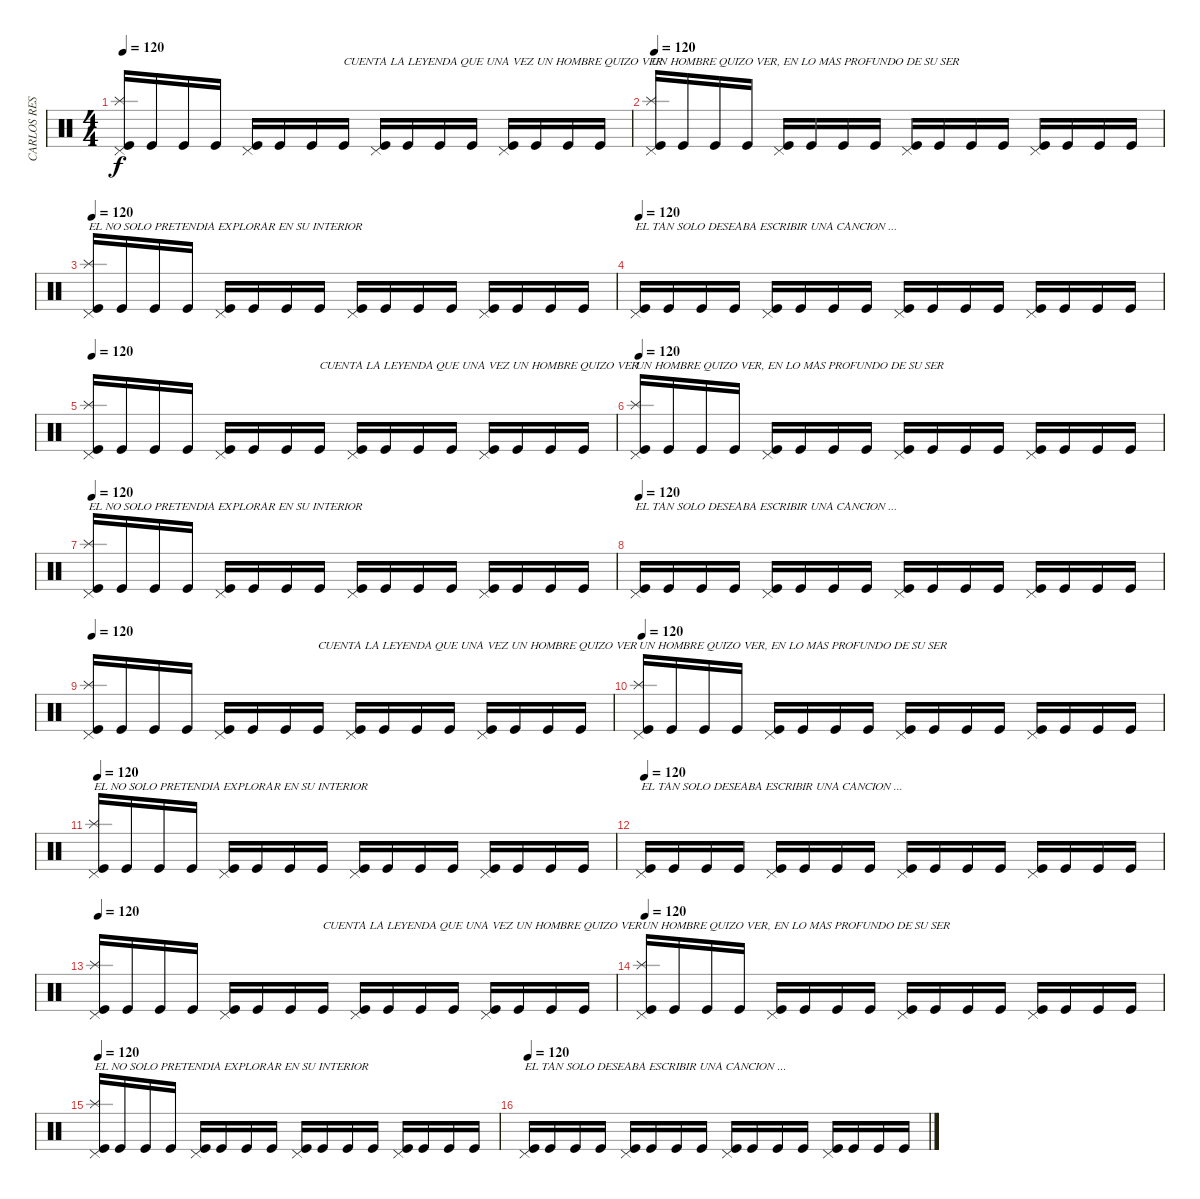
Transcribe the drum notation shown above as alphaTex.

\track ("CARLOS RESTREPO DARK  BATERIA" "CARLOS RES") {instrument percussion}
\staff {score}
\articulation defaults
\ts (4 4)
\tempo 120
\clef neutral
\ks c
("Kick (hit)" "Splash (hit)" "Pedal Hi-Hat (hit)").16{dy f} "Kick (hit)".16 "Kick (hit)".16 "Kick (hit)".16 ("Kick (hit)" "Pedal Hi-Hat (hit)").16 "Kick (hit)".16 "Kick (hit)".16 "Kick (hit)".16{txt "CUENTA LA LEYENDA QUE UNA VEZ UN HOMBRE QUIZO VER"} ("Kick (hit)" "Pedal Hi-Hat (hit)").16 "Kick (hit)".16 "Kick (hit)".16 "Kick (hit)".16 ("Kick (hit)" "Pedal Hi-Hat (hit)").16 "Kick (hit)".16 "Kick (hit)".16 "Kick (hit)".16 |
\tempo 120
("Kick (hit)" "Splash (hit)" "Pedal Hi-Hat (hit)").16{txt "UN HOMBRE QUIZO VER, EN LO MAS PROFUNDO DE SU SER"} "Kick (hit)".16 "Kick (hit)".16 "Kick (hit)".16 ("Kick (hit)" "Pedal Hi-Hat (hit)").16 "Kick (hit)".16 "Kick (hit)".16 "Kick (hit)".16 ("Kick (hit)" "Pedal Hi-Hat (hit)").16 "Kick (hit)".16 "Kick (hit)".16 "Kick (hit)".16 ("Kick (hit)" "Pedal Hi-Hat (hit)").16 "Kick (hit)".16 "Kick (hit)".16 "Kick (hit)".16 |
\tempo 120
("Kick (hit)" "Splash (hit)" "Pedal Hi-Hat (hit)").16{txt "EL NO SOLO PRETENDIA EXPLORAR EN SU INTERIOR"} "Kick (hit)".16 "Kick (hit)".16 "Kick (hit)".16 ("Kick (hit)" "Pedal Hi-Hat (hit)").16 "Kick (hit)".16 "Kick (hit)".16 "Kick (hit)".16 ("Kick (hit)" "Pedal Hi-Hat (hit)").16 "Kick (hit)".16 "Kick (hit)".16 "Kick (hit)".16 ("Kick (hit)" "Pedal Hi-Hat (hit)").16 "Kick (hit)".16 "Kick (hit)".16 "Kick (hit)".16 |
\tempo 120
("Kick (hit)" "Pedal Hi-Hat (hit)").16{txt "EL TAN SOLO DESEABA ESCRIBIR UNA CANCION ..."} "Kick (hit)".16 "Kick (hit)".16 "Kick (hit)".16 ("Kick (hit)" "Pedal Hi-Hat (hit)").16 "Kick (hit)".16 "Kick (hit)".16 "Kick (hit)".16 ("Kick (hit)" "Pedal Hi-Hat (hit)").16 "Kick (hit)".16 "Kick (hit)".16 "Kick (hit)".16 ("Kick (hit)" "Pedal Hi-Hat (hit)").16 "Kick (hit)".16 "Kick (hit)".16 "Kick (hit)".16 |
\tempo 120
("Kick (hit)" "Splash (hit)" "Pedal Hi-Hat (hit)").16 "Kick (hit)".16 "Kick (hit)".16 "Kick (hit)".16 ("Kick (hit)" "Pedal Hi-Hat (hit)").16 "Kick (hit)".16 "Kick (hit)".16 "Kick (hit)".16{txt "CUENTA LA LEYENDA QUE UNA VEZ UN HOMBRE QUIZO VER"} ("Kick (hit)" "Pedal Hi-Hat (hit)").16 "Kick (hit)".16 "Kick (hit)".16 "Kick (hit)".16 ("Kick (hit)" "Pedal Hi-Hat (hit)").16 "Kick (hit)".16 "Kick (hit)".16 "Kick (hit)".16 |
\tempo 120
("Kick (hit)" "Splash (hit)" "Pedal Hi-Hat (hit)").16{txt "UN HOMBRE QUIZO VER, EN LO MAS PROFUNDO DE SU SER"} "Kick (hit)".16 "Kick (hit)".16 "Kick (hit)".16 ("Kick (hit)" "Pedal Hi-Hat (hit)").16 "Kick (hit)".16 "Kick (hit)".16 "Kick (hit)".16 ("Kick (hit)" "Pedal Hi-Hat (hit)").16 "Kick (hit)".16 "Kick (hit)".16 "Kick (hit)".16 ("Kick (hit)" "Pedal Hi-Hat (hit)").16 "Kick (hit)".16 "Kick (hit)".16 "Kick (hit)".16 |
\tempo 120
("Kick (hit)" "Splash (hit)" "Pedal Hi-Hat (hit)").16{txt "EL NO SOLO PRETENDIA EXPLORAR EN SU INTERIOR"} "Kick (hit)".16 "Kick (hit)".16 "Kick (hit)".16 ("Kick (hit)" "Pedal Hi-Hat (hit)").16 "Kick (hit)".16 "Kick (hit)".16 "Kick (hit)".16 ("Kick (hit)" "Pedal Hi-Hat (hit)").16 "Kick (hit)".16 "Kick (hit)".16 "Kick (hit)".16 ("Kick (hit)" "Pedal Hi-Hat (hit)").16 "Kick (hit)".16 "Kick (hit)".16 "Kick (hit)".16 |
\tempo 120
("Kick (hit)" "Pedal Hi-Hat (hit)").16{txt "EL TAN SOLO DESEABA ESCRIBIR UNA CANCION ..."} "Kick (hit)".16 "Kick (hit)".16 "Kick (hit)".16 ("Kick (hit)" "Pedal Hi-Hat (hit)").16 "Kick (hit)".16 "Kick (hit)".16 "Kick (hit)".16 ("Kick (hit)" "Pedal Hi-Hat (hit)").16 "Kick (hit)".16 "Kick (hit)".16 "Kick (hit)".16 ("Kick (hit)" "Pedal Hi-Hat (hit)").16 "Kick (hit)".16 "Kick (hit)".16 "Kick (hit)".16 |
\tempo 120
("Kick (hit)" "Splash (hit)" "Pedal Hi-Hat (hit)").16 "Kick (hit)".16 "Kick (hit)".16 "Kick (hit)".16 ("Kick (hit)" "Pedal Hi-Hat (hit)").16 "Kick (hit)".16 "Kick (hit)".16 "Kick (hit)".16{txt "CUENTA LA LEYENDA QUE UNA VEZ UN HOMBRE QUIZO VER"} ("Kick (hit)" "Pedal Hi-Hat (hit)").16 "Kick (hit)".16 "Kick (hit)".16 "Kick (hit)".16 ("Kick (hit)" "Pedal Hi-Hat (hit)").16 "Kick (hit)".16 "Kick (hit)".16 "Kick (hit)".16 |
\tempo 120
("Kick (hit)" "Splash (hit)" "Pedal Hi-Hat (hit)").16{txt "UN HOMBRE QUIZO VER, EN LO MAS PROFUNDO DE SU SER"} "Kick (hit)".16 "Kick (hit)".16 "Kick (hit)".16 ("Kick (hit)" "Pedal Hi-Hat (hit)").16 "Kick (hit)".16 "Kick (hit)".16 "Kick (hit)".16 ("Kick (hit)" "Pedal Hi-Hat (hit)").16 "Kick (hit)".16 "Kick (hit)".16 "Kick (hit)".16 ("Kick (hit)" "Pedal Hi-Hat (hit)").16 "Kick (hit)".16 "Kick (hit)".16 "Kick (hit)".16 |
\tempo 120
("Kick (hit)" "Splash (hit)" "Pedal Hi-Hat (hit)").16{txt "EL NO SOLO PRETENDIA EXPLORAR EN SU INTERIOR"} "Kick (hit)".16 "Kick (hit)".16 "Kick (hit)".16 ("Kick (hit)" "Pedal Hi-Hat (hit)").16 "Kick (hit)".16 "Kick (hit)".16 "Kick (hit)".16 ("Kick (hit)" "Pedal Hi-Hat (hit)").16 "Kick (hit)".16 "Kick (hit)".16 "Kick (hit)".16 ("Kick (hit)" "Pedal Hi-Hat (hit)").16 "Kick (hit)".16 "Kick (hit)".16 "Kick (hit)".16 |
\tempo 120
("Kick (hit)" "Pedal Hi-Hat (hit)").16{txt "EL TAN SOLO DESEABA ESCRIBIR UNA CANCION ..."} "Kick (hit)".16 "Kick (hit)".16 "Kick (hit)".16 ("Kick (hit)" "Pedal Hi-Hat (hit)").16 "Kick (hit)".16 "Kick (hit)".16 "Kick (hit)".16 ("Kick (hit)" "Pedal Hi-Hat (hit)").16 "Kick (hit)".16 "Kick (hit)".16 "Kick (hit)".16 ("Kick (hit)" "Pedal Hi-Hat (hit)").16 "Kick (hit)".16 "Kick (hit)".16 "Kick (hit)".16 |
\tempo 120
("Kick (hit)" "Splash (hit)" "Pedal Hi-Hat (hit)").16 "Kick (hit)".16 "Kick (hit)".16 "Kick (hit)".16 ("Kick (hit)" "Pedal Hi-Hat (hit)").16 "Kick (hit)".16 "Kick (hit)".16 "Kick (hit)".16{txt "CUENTA LA LEYENDA QUE UNA VEZ UN HOMBRE QUIZO VER"} ("Kick (hit)" "Pedal Hi-Hat (hit)").16 "Kick (hit)".16 "Kick (hit)".16 "Kick (hit)".16 ("Kick (hit)" "Pedal Hi-Hat (hit)").16 "Kick (hit)".16 "Kick (hit)".16 "Kick (hit)".16 |
\tempo 120
("Kick (hit)" "Splash (hit)" "Pedal Hi-Hat (hit)").16{txt "UN HOMBRE QUIZO VER, EN LO MAS PROFUNDO DE SU SER"} "Kick (hit)".16 "Kick (hit)".16 "Kick (hit)".16 ("Kick (hit)" "Pedal Hi-Hat (hit)").16 "Kick (hit)".16 "Kick (hit)".16 "Kick (hit)".16 ("Kick (hit)" "Pedal Hi-Hat (hit)").16 "Kick (hit)".16 "Kick (hit)".16 "Kick (hit)".16 ("Kick (hit)" "Pedal Hi-Hat (hit)").16 "Kick (hit)".16 "Kick (hit)".16 "Kick (hit)".16 |
\tempo 120
("Kick (hit)" "Splash (hit)" "Pedal Hi-Hat (hit)").16{txt "EL NO SOLO PRETENDIA EXPLORAR EN SU INTERIOR"} "Kick (hit)".16 "Kick (hit)".16 "Kick (hit)".16 ("Kick (hit)" "Pedal Hi-Hat (hit)").16 "Kick (hit)".16 "Kick (hit)".16 "Kick (hit)".16 ("Kick (hit)" "Pedal Hi-Hat (hit)").16 "Kick (hit)".16 "Kick (hit)".16 "Kick (hit)".16 ("Kick (hit)" "Pedal Hi-Hat (hit)").16 "Kick (hit)".16 "Kick (hit)".16 "Kick (hit)".16 |
\tempo 120
("Kick (hit)" "Pedal Hi-Hat (hit)").16{txt "EL TAN SOLO DESEABA ESCRIBIR UNA CANCION ..."} "Kick (hit)".16 "Kick (hit)".16 "Kick (hit)".16 ("Kick (hit)" "Pedal Hi-Hat (hit)").16 "Kick (hit)".16 "Kick (hit)".16 "Kick (hit)".16 ("Kick (hit)" "Pedal Hi-Hat (hit)").16 "Kick (hit)".16 "Kick (hit)".16 "Kick (hit)".16 ("Kick (hit)" "Pedal Hi-Hat (hit)").16 "Kick (hit)".16 "Kick (hit)".16 "Kick (hit)".16
